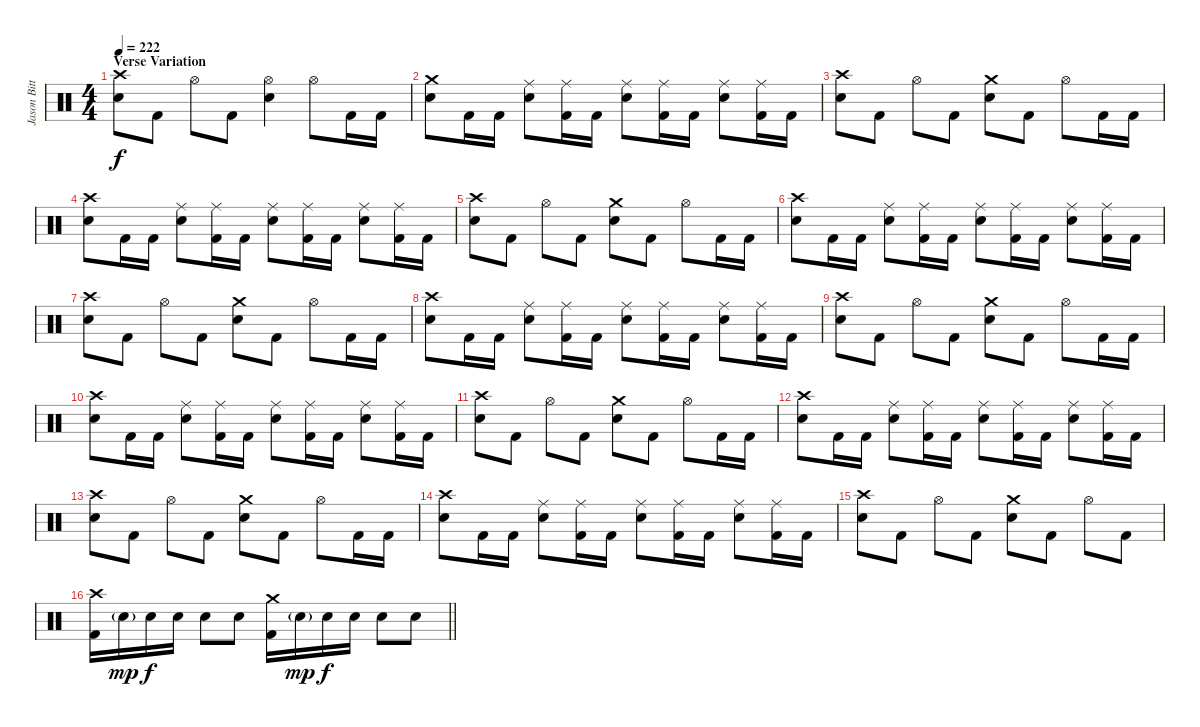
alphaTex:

\track ("Jason Bittner" "Jason Bitt") {instrument percussion}
\staff {score}
\articulation defaults
\ts (4 4)
\section ("" "Verse Variation")
\tempo 222
\clef neutral
\ks c
("Crash high (hit)" "Electric Snare (hit)").8{dy f} "Kick (hit) 2".8 "Hi-Hat (open)".8 "Kick (hit) 2".8 ("Hi-Hat (open)" "Electric Snare (hit)").4 "Hi-Hat (open)".8 "Kick (hit) 2".16 "Kick (hit) 2".16 |
("Crash medium (hit)" "Electric Snare (hit)").8 "Kick (hit) 2".16 "Kick (hit) 2".16 ("Ride (middle)" "Electric Snare (hit)").8 ("Ride (middle)" "Kick (hit) 2").16 "Kick (hit) 2".16 ("Ride (middle)" "Electric Snare (hit)").8 ("Ride (middle)" "Kick (hit) 2").16 "Kick (hit) 2".16 ("Ride (middle)" "Electric Snare (hit)").8 ("Ride (middle)" "Kick (hit) 2").16 "Kick (hit) 2".16 |
("Crash high (hit)" "Electric Snare (hit)").8 "Kick (hit) 2".8 "Hi-Hat (open)".8 "Kick (hit) 2".8 ("Crash medium (hit)" "Electric Snare (hit)").8 "Kick (hit) 2".8 "Hi-Hat (open)".8 "Kick (hit) 2".16 "Kick (hit) 2".16 |
("Crash high (hit)" "Electric Snare (hit)").8 "Kick (hit) 2".16 "Kick (hit) 2".16 ("Ride (middle)" "Electric Snare (hit)").8 ("Ride (middle)" "Kick (hit) 2").16 "Kick (hit) 2".16 ("Ride (middle)" "Electric Snare (hit)").8 ("Ride (middle)" "Kick (hit) 2").16 "Kick (hit) 2".16 ("Ride (middle)" "Electric Snare (hit)").8 ("Ride (middle)" "Kick (hit) 2").16 "Kick (hit) 2".16 |
("Crash high (hit)" "Electric Snare (hit)").8 "Kick (hit) 2".8 "Hi-Hat (open)".8 "Kick (hit) 2".8 ("Crash medium (hit)" "Electric Snare (hit)").8 "Kick (hit) 2".8 "Hi-Hat (open)".8 "Kick (hit) 2".16 "Kick (hit) 2".16 |
("Crash high (hit)" "Electric Snare (hit)").8 "Kick (hit) 2".16 "Kick (hit) 2".16 ("Ride (middle)" "Electric Snare (hit)").8 ("Ride (middle)" "Kick (hit) 2").16 "Kick (hit) 2".16 ("Ride (middle)" "Electric Snare (hit)").8 ("Ride (middle)" "Kick (hit) 2").16 "Kick (hit) 2".16 ("Ride (middle)" "Electric Snare (hit)").8 ("Ride (middle)" "Kick (hit) 2").16 "Kick (hit) 2".16 |
("Crash high (hit)" "Electric Snare (hit)").8 "Kick (hit) 2".8 "Hi-Hat (open)".8 "Kick (hit) 2".8 ("Crash medium (hit)" "Electric Snare (hit)").8 "Kick (hit) 2".8 "Hi-Hat (open)".8 "Kick (hit) 2".16 "Kick (hit) 2".16 |
("Crash high (hit)" "Electric Snare (hit)").8 "Kick (hit) 2".16 "Kick (hit) 2".16 ("Ride (middle)" "Electric Snare (hit)").8 ("Ride (middle)" "Kick (hit) 2").16 "Kick (hit) 2".16 ("Ride (middle)" "Electric Snare (hit)").8 ("Ride (middle)" "Kick (hit) 2").16 "Kick (hit) 2".16 ("Ride (middle)" "Electric Snare (hit)").8 ("Ride (middle)" "Kick (hit) 2").16 "Kick (hit) 2".16 |
("Crash high (hit)" "Electric Snare (hit)").8 "Kick (hit) 2".8 "Hi-Hat (open)".8 "Kick (hit) 2".8 ("Crash medium (hit)" "Electric Snare (hit)").8 "Kick (hit) 2".8 "Hi-Hat (open)".8 "Kick (hit) 2".16 "Kick (hit) 2".16 |
("Crash high (hit)" "Electric Snare (hit)").8 "Kick (hit) 2".16 "Kick (hit) 2".16 ("Ride (middle)" "Electric Snare (hit)").8 ("Ride (middle)" "Kick (hit) 2").16 "Kick (hit) 2".16 ("Ride (middle)" "Electric Snare (hit)").8 ("Ride (middle)" "Kick (hit) 2").16 "Kick (hit) 2".16 ("Ride (middle)" "Electric Snare (hit)").8 ("Ride (middle)" "Kick (hit) 2").16 "Kick (hit) 2".16 |
("Crash high (hit)" "Electric Snare (hit)").8 "Kick (hit) 2".8 "Hi-Hat (open)".8 "Kick (hit) 2".8 ("Crash medium (hit)" "Electric Snare (hit)").8 "Kick (hit) 2".8 "Hi-Hat (open)".8 "Kick (hit) 2".16 "Kick (hit) 2".16 |
("Crash high (hit)" "Electric Snare (hit)").8 "Kick (hit) 2".16 "Kick (hit) 2".16 ("Ride (middle)" "Electric Snare (hit)").8 ("Ride (middle)" "Kick (hit) 2").16 "Kick (hit) 2".16 ("Ride (middle)" "Electric Snare (hit)").8 ("Ride (middle)" "Kick (hit) 2").16 "Kick (hit) 2".16 ("Ride (middle)" "Electric Snare (hit)").8 ("Ride (middle)" "Kick (hit) 2").16 "Kick (hit) 2".16 |
("Crash high (hit)" "Electric Snare (hit)").8 "Kick (hit) 2".8 "Hi-Hat (open)".8 "Kick (hit) 2".8 ("Crash medium (hit)" "Electric Snare (hit)").8 "Kick (hit) 2".8 "Hi-Hat (open)".8 "Kick (hit) 2".16 "Kick (hit) 2".16 |
("Crash high (hit)" "Electric Snare (hit)").8 "Kick (hit) 2".16 "Kick (hit) 2".16 ("Ride (middle)" "Electric Snare (hit)").8 ("Ride (middle)" "Kick (hit) 2").16 "Kick (hit) 2".16 ("Ride (middle)" "Electric Snare (hit)").8 ("Ride (middle)" "Kick (hit) 2").16 "Kick (hit) 2".16 ("Ride (middle)" "Electric Snare (hit)").8 ("Ride (middle)" "Kick (hit) 2").16 "Kick (hit) 2".16 |
("Crash high (hit)" "Electric Snare (hit)").8 "Kick (hit) 2".8 "Hi-Hat (open)".8 "Kick (hit) 2".8 ("Crash medium (hit)" "Electric Snare (hit)").8 "Kick (hit) 2".8 "Hi-Hat (open)".8 "Kick (hit) 2".8 |
\barLineRight lightlight
("Crash high (hit)" "Kick (hit) 2").16 "Electric Snare (hit)"{g}.16{dy mp} "Electric Snare (hit)".16{dy f} "Electric Snare (hit)".16 "Electric Snare (hit)".8 "Electric Snare (hit)".8 ("Crash medium (hit)" "Kick (hit) 2").16 "Electric Snare (hit)"{g}.16{dy mp} "Electric Snare (hit)".16{dy f} "Electric Snare (hit)".16 "Electric Snare (hit)".8 "Electric Snare (hit)".8
